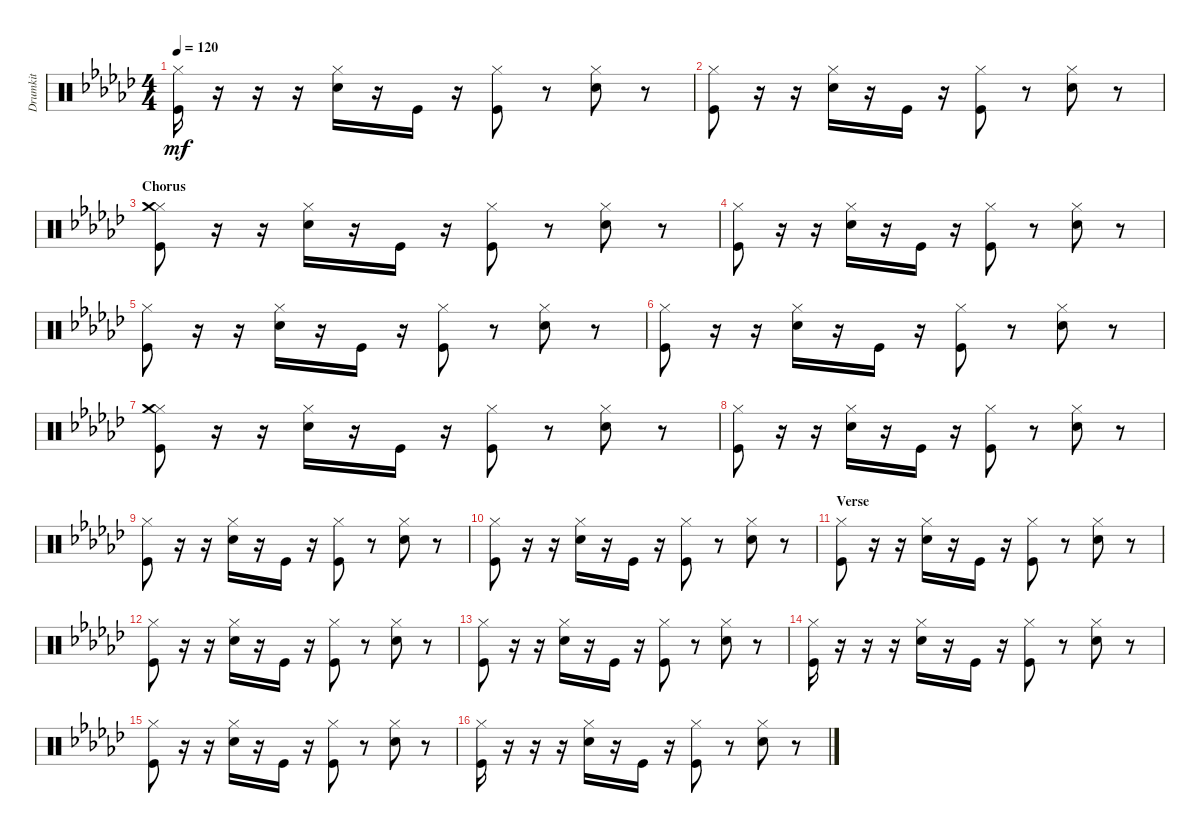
\track ("Drumkit" "Drumkit") {instrument percussion}
\staff {score}
\articulation defaults
\ts (4 4)
\tempo 120
\clef neutral
\ks ebminor
("Kick (hit)" "Hi-Hat (closed)").16{dy mf} r.16 r.16 r.16 ("Snare (hit) 2" "Hi-Hat (closed)").16 r.16 "Kick (hit)".16 r.16 ("Kick (hit)" "Hi-Hat (closed)").8 r.8 ("Snare (hit) 2" "Hi-Hat (closed)").8 r.8 |
("Kick (hit)" "Hi-Hat (closed)").8 r.16 r.16 ("Snare (hit) 2" "Hi-Hat (closed)").16 r.16 "Kick (hit)".16 r.16 ("Kick (hit)" "Hi-Hat (closed)").8 r.8 ("Snare (hit) 2" "Hi-Hat (closed)").8 r.8 |
\section ("" "Chorus")
("Kick (hit)" "Hi-Hat (closed)" "Crash medium (hit)").8 r.16 r.16 ("Snare (hit) 2" "Hi-Hat (closed)").16 r.16 "Kick (hit)".16 r.16 ("Kick (hit)" "Hi-Hat (closed)").8 r.8 ("Snare (hit) 2" "Hi-Hat (closed)").8 r.8 |
("Kick (hit)" "Hi-Hat (closed)").8 r.16 r.16 ("Snare (hit) 2" "Hi-Hat (closed)").16 r.16 "Kick (hit)".16 r.16 ("Kick (hit)" "Hi-Hat (closed)").8 r.8 ("Snare (hit) 2" "Hi-Hat (closed)").8 r.8 |
("Kick (hit)" "Hi-Hat (closed)").8 r.16 r.16 ("Snare (hit) 2" "Hi-Hat (closed)").16 r.16 "Kick (hit)".16 r.16 ("Kick (hit)" "Hi-Hat (closed)").8 r.8 ("Snare (hit) 2" "Hi-Hat (closed)").8 r.8 |
("Kick (hit)" "Hi-Hat (closed)").8 r.16 r.16 ("Snare (hit) 2" "Hi-Hat (closed)").16 r.16 "Kick (hit)".16 r.16 ("Kick (hit)" "Hi-Hat (closed)").8 r.8 ("Snare (hit) 2" "Hi-Hat (closed)").8 r.8 |
("Kick (hit)" "Hi-Hat (closed)" "Crash medium (hit)").8 r.16 r.16 ("Snare (hit) 2" "Hi-Hat (closed)").16 r.16 "Kick (hit)".16 r.16 ("Kick (hit)" "Hi-Hat (closed)").8 r.8 ("Snare (hit) 2" "Hi-Hat (closed)").8 r.8 |
("Kick (hit)" "Hi-Hat (closed)").8 r.16 r.16 ("Snare (hit) 2" "Hi-Hat (closed)").16 r.16 "Kick (hit)".16 r.16 ("Kick (hit)" "Hi-Hat (closed)").8 r.8 ("Snare (hit) 2" "Hi-Hat (closed)").8 r.8 |
("Kick (hit)" "Hi-Hat (closed)").8 r.16 r.16 ("Snare (hit) 2" "Hi-Hat (closed)").16 r.16 "Kick (hit)".16 r.16 ("Kick (hit)" "Hi-Hat (closed)").8 r.8 ("Snare (hit) 2" "Hi-Hat (closed)").8 r.8 |
("Kick (hit)" "Hi-Hat (closed)").8 r.16 r.16 ("Snare (hit) 2" "Hi-Hat (closed)").16 r.16 "Kick (hit)".16 r.16 ("Kick (hit)" "Hi-Hat (closed)").8 r.8 ("Snare (hit) 2" "Hi-Hat (closed)").8 r.8 |
\section ("" "Verse")
("Kick (hit)" "Hi-Hat (closed)").8 r.16 r.16 ("Snare (hit) 2" "Hi-Hat (closed)").16 r.16 "Kick (hit)".16 r.16 ("Kick (hit)" "Hi-Hat (closed)").8 r.8 ("Snare (hit) 2" "Hi-Hat (closed)").8 r.8 |
("Kick (hit)" "Hi-Hat (closed)").8 r.16 r.16 ("Snare (hit) 2" "Hi-Hat (closed)").16 r.16 "Kick (hit)".16 r.16 ("Kick (hit)" "Hi-Hat (closed)").8 r.8 ("Snare (hit) 2" "Hi-Hat (closed)").8 r.8 |
("Kick (hit)" "Hi-Hat (closed)").8 r.16 r.16 ("Snare (hit) 2" "Hi-Hat (closed)").16 r.16 "Kick (hit)".16 r.16 ("Kick (hit)" "Hi-Hat (closed)").8 r.8 ("Snare (hit) 2" "Hi-Hat (closed)").8 r.8 |
("Kick (hit)" "Hi-Hat (closed)").16 r.16 r.16 r.16 ("Snare (hit) 2" "Hi-Hat (closed)").16 r.16 "Kick (hit)".16 r.16 ("Kick (hit)" "Hi-Hat (closed)").8 r.8 ("Snare (hit) 2" "Hi-Hat (closed)").8 r.8 |
("Kick (hit)" "Hi-Hat (closed)").8 r.16 r.16 ("Snare (hit) 2" "Hi-Hat (closed)").16 r.16 "Kick (hit)".16 r.16 ("Kick (hit)" "Hi-Hat (closed)").8 r.8 ("Snare (hit) 2" "Hi-Hat (closed)").8 r.8 |
("Kick (hit)" "Hi-Hat (closed)").16 r.16 r.16 r.16 ("Snare (hit) 2" "Hi-Hat (closed)").16 r.16 "Kick (hit)".16 r.16 ("Kick (hit)" "Hi-Hat (closed)").8 r.8 ("Snare (hit) 2" "Hi-Hat (closed)").8 r.8
